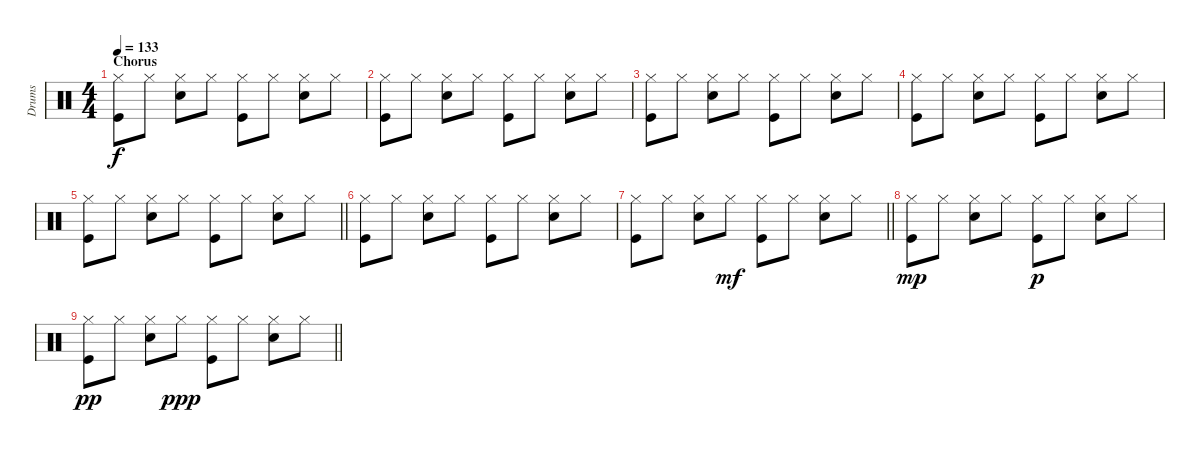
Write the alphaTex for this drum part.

\track ("Drums" "Drums") {instrument percussion}
\staff {score}
\articulation defaults
\ts (4 4)
\section ("" "Chorus")
\tempo 133
\clef neutral
\ks c
("Hi-Hat (closed)" "Kick (hit)").8{dy f} "Hi-Hat (closed)".8 ("Hi-Hat (closed)" "Snare (hit) 2").8 "Hi-Hat (closed)".8 ("Hi-Hat (closed)" "Kick (hit)").8 "Hi-Hat (closed)".8 ("Hi-Hat (closed)" "Snare (hit) 2").8 "Hi-Hat (closed)".8 |
("Hi-Hat (closed)" "Kick (hit)").8 "Hi-Hat (closed)".8 ("Hi-Hat (closed)" "Snare (hit) 2").8 "Hi-Hat (closed)".8 ("Hi-Hat (closed)" "Kick (hit)").8 "Hi-Hat (closed)".8 ("Hi-Hat (closed)" "Snare (hit) 2").8 "Hi-Hat (closed)".8 |
("Hi-Hat (closed)" "Kick (hit)").8 "Hi-Hat (closed)".8 ("Hi-Hat (closed)" "Snare (hit) 2").8 "Hi-Hat (closed)".8 ("Hi-Hat (closed)" "Kick (hit)").8 "Hi-Hat (closed)".8 ("Hi-Hat (closed)" "Snare (hit) 2").8 "Hi-Hat (closed)".8 |
("Hi-Hat (closed)" "Kick (hit)").8 "Hi-Hat (closed)".8 ("Hi-Hat (closed)" "Snare (hit) 2").8 "Hi-Hat (closed)".8 ("Hi-Hat (closed)" "Kick (hit)").8 "Hi-Hat (closed)".8 ("Hi-Hat (closed)" "Snare (hit) 2").8 "Hi-Hat (closed)".8 |
\barLineRight lightlight
("Hi-Hat (closed)" "Kick (hit)").8 "Hi-Hat (closed)".8 ("Hi-Hat (closed)" "Snare (hit) 2").8 "Hi-Hat (closed)".8 ("Hi-Hat (closed)" "Kick (hit)").8 "Hi-Hat (closed)".8 ("Hi-Hat (closed)" "Snare (hit) 2").8 "Hi-Hat (closed)".8 |
("Hi-Hat (closed)" "Kick (hit)").8 "Hi-Hat (closed)".8 ("Hi-Hat (closed)" "Snare (hit) 2").8 "Hi-Hat (closed)".8 ("Hi-Hat (closed)" "Kick (hit)").8 "Hi-Hat (closed)".8 ("Hi-Hat (closed)" "Snare (hit) 2").8 "Hi-Hat (closed)".8 |
\barLineRight lightlight
("Hi-Hat (closed)" "Kick (hit)").8 "Hi-Hat (closed)".8 ("Hi-Hat (closed)" "Snare (hit) 2").8 "Hi-Hat (closed)".8{dy mf} ("Hi-Hat (closed)" "Kick (hit)").8 "Hi-Hat (closed)".8 ("Hi-Hat (closed)" "Snare (hit) 2").8 "Hi-Hat (closed)".8 |
("Hi-Hat (closed)" "Kick (hit)").8{dy mp} "Hi-Hat (closed)".8 ("Hi-Hat (closed)" "Snare (hit) 2").8 "Hi-Hat (closed)".8 ("Hi-Hat (closed)" "Kick (hit)").8{dy p} "Hi-Hat (closed)".8 ("Hi-Hat (closed)" "Snare (hit) 2").8 "Hi-Hat (closed)".8 |
\barLineRight lightlight
("Hi-Hat (closed)" "Kick (hit)").8{dy pp} "Hi-Hat (closed)".8 ("Hi-Hat (closed)" "Snare (hit) 2").8 "Hi-Hat (closed)".8{dy ppp} ("Hi-Hat (closed)" "Kick (hit)").8 "Hi-Hat (closed)".8 ("Hi-Hat (closed)" "Snare (hit) 2").8 "Hi-Hat (closed)".8
